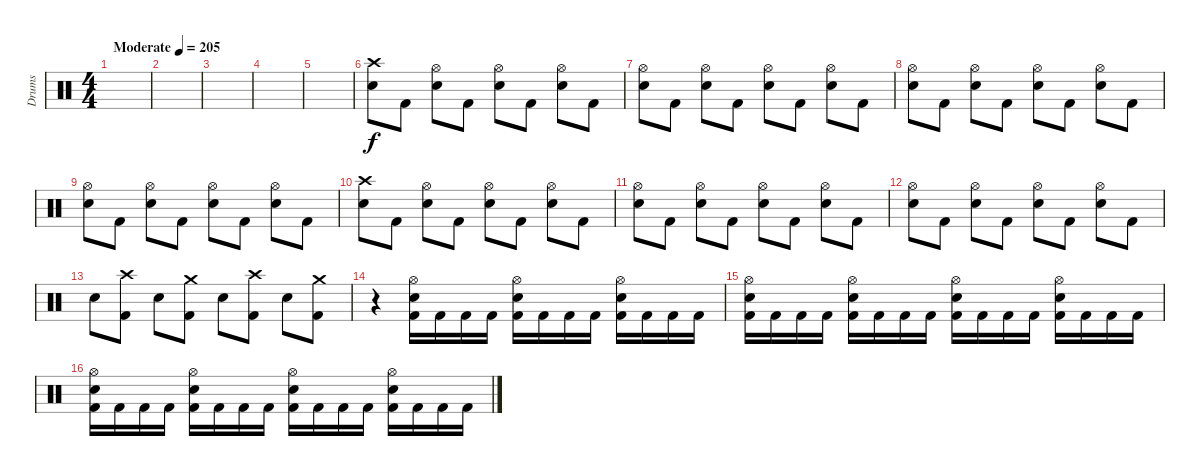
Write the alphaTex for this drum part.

\track ("Drums" "Drums") {instrument percussion}
\staff {score}
\articulation defaults
\ts (4 4)
\tempo (205 "Moderate")
\clef neutral
\ks c
|
|
|
|
|
("Crash high (hit)" "Snare (hit) 2").8 "Kick (hit) 2".8 ("Hi-Hat (open)" "Snare (hit) 2").8 "Kick (hit) 2".8 ("Hi-Hat (open)" "Snare (hit) 2").8 "Kick (hit) 2".8 ("Hi-Hat (open)" "Snare (hit) 2").8 "Kick (hit) 2".8 |
("Hi-Hat (open)" "Snare (hit) 2").8 "Kick (hit) 2".8 ("Hi-Hat (open)" "Snare (hit) 2").8 "Kick (hit) 2".8 ("Hi-Hat (open)" "Snare (hit) 2").8 "Kick (hit) 2".8 ("Hi-Hat (open)" "Snare (hit) 2").8 "Kick (hit) 2".8 |
("Hi-Hat (open)" "Snare (hit) 2").8 "Kick (hit) 2".8 ("Hi-Hat (open)" "Snare (hit) 2").8 "Kick (hit) 2".8 ("Hi-Hat (open)" "Snare (hit) 2").8 "Kick (hit) 2".8 ("Hi-Hat (open)" "Snare (hit) 2").8 "Kick (hit) 2".8 |
("Hi-Hat (open)" "Snare (hit) 2").8 "Kick (hit) 2".8 ("Hi-Hat (open)" "Snare (hit) 2").8 "Kick (hit) 2".8 ("Hi-Hat (open)" "Snare (hit) 2").8 "Kick (hit) 2".8 ("Hi-Hat (open)" "Snare (hit) 2").8 "Kick (hit) 2".8 |
("Crash high (hit)" "Snare (hit) 2").8 "Kick (hit) 2".8 ("Hi-Hat (open)" "Snare (hit) 2").8 "Kick (hit) 2".8 ("Hi-Hat (open)" "Snare (hit) 2").8 "Kick (hit) 2".8 ("Hi-Hat (open)" "Snare (hit) 2").8 "Kick (hit) 2".8 |
("Hi-Hat (open)" "Snare (hit) 2").8 "Kick (hit) 2".8 ("Hi-Hat (open)" "Snare (hit) 2").8 "Kick (hit) 2".8 ("Hi-Hat (open)" "Snare (hit) 2").8 "Kick (hit) 2".8 ("Hi-Hat (open)" "Snare (hit) 2").8 "Kick (hit) 2".8 |
("Hi-Hat (open)" "Snare (hit) 2").8 "Kick (hit) 2".8 ("Hi-Hat (open)" "Snare (hit) 2").8 "Kick (hit) 2".8 ("Hi-Hat (open)" "Snare (hit) 2").8 "Kick (hit) 2".8 ("Hi-Hat (open)" "Snare (hit) 2").8 "Kick (hit) 2".8 |
"Snare (hit) 2".8 ("Crash high (hit)" "Kick (hit) 2").8 "Snare (hit) 2".8 ("Crash medium (hit)" "Kick (hit) 2").8 "Snare (hit) 2".8 ("Crash high (hit)" "Kick (hit) 2").8 "Snare (hit) 2".8 ("Crash medium (hit)" "Kick (hit) 2").8 |
r.4 ("Hi-Hat (open)" "Snare (hit) 2" "Kick (hit) 2").16 "Kick (hit) 2".16 "Kick (hit) 2".16 "Kick (hit) 2".16 ("Hi-Hat (open)" "Snare (hit) 2" "Kick (hit) 2").16 "Kick (hit) 2".16 "Kick (hit) 2".16 "Kick (hit) 2".16 ("Hi-Hat (open)" "Snare (hit) 2" "Kick (hit) 2").16 "Kick (hit) 2".16 "Kick (hit) 2".16 "Kick (hit) 2".16 |
("Hi-Hat (open)" "Snare (hit) 2" "Kick (hit) 2").16 "Kick (hit) 2".16 "Kick (hit) 2".16 "Kick (hit) 2".16 ("Hi-Hat (open)" "Snare (hit) 2" "Kick (hit) 2").16 "Kick (hit) 2".16 "Kick (hit) 2".16 "Kick (hit) 2".16 ("Hi-Hat (open)" "Snare (hit) 2" "Kick (hit) 2").16 "Kick (hit) 2".16 "Kick (hit) 2".16 "Kick (hit) 2".16 ("Hi-Hat (open)" "Snare (hit) 2" "Kick (hit) 2").16 "Kick (hit) 2".16 "Kick (hit) 2".16 "Kick (hit) 2".16 |
("Hi-Hat (open)" "Snare (hit) 2" "Kick (hit) 2").16 "Kick (hit) 2".16 "Kick (hit) 2".16 "Kick (hit) 2".16 ("Hi-Hat (open)" "Snare (hit) 2" "Kick (hit) 2").16 "Kick (hit) 2".16 "Kick (hit) 2".16 "Kick (hit) 2".16 ("Hi-Hat (open)" "Snare (hit) 2" "Kick (hit) 2").16 "Kick (hit) 2".16 "Kick (hit) 2".16 "Kick (hit) 2".16 ("Hi-Hat (open)" "Snare (hit) 2" "Kick (hit) 2").16 "Kick (hit) 2".16 "Kick (hit) 2".16 "Kick (hit) 2".16
